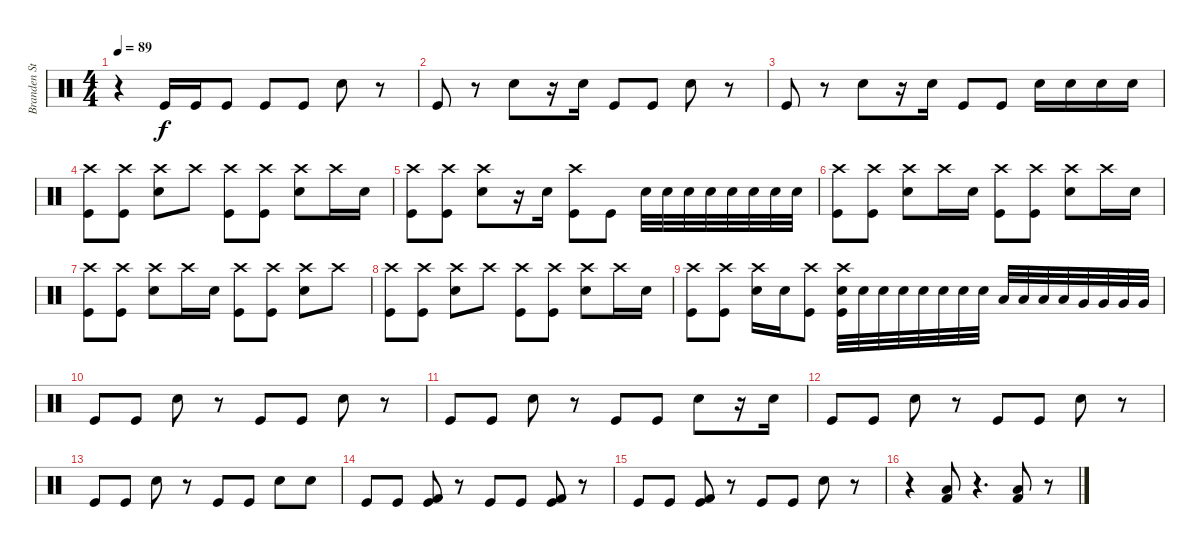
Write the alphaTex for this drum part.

\track ("Branden Steineckert - Drums" "Branden St") {instrument percussion}
\staff {score}
\articulation defaults
\ts (4 4)
\tempo 89
\clef neutral
\ks c
r.4{dy f} "Kick (hit)".16 "Kick (hit)".16 "Kick (hit)".8 "Kick (hit)".8 "Kick (hit)".8 "Electric Snare (hit)".8 r.8 |
"Kick (hit)".8 r.8 "Electric Snare (hit)".8 r.16 "Electric Snare (hit)".16 "Kick (hit)".8 "Kick (hit)".8 "Electric Snare (hit)".8 r.8 |
"Kick (hit)".8 r.8 "Electric Snare (hit)".8 r.16 "Electric Snare (hit)".16 "Kick (hit)".8 "Kick (hit)".8 "Electric Snare (hit)".16 "Electric Snare (hit)".16 "Electric Snare (hit)".16 "Electric Snare (hit)".16 |
("Crash high (hit)" "Kick (hit)").8 ("Crash high (hit)" "Kick (hit)").8 ("Crash high (hit)" "Electric Snare (hit)").8 "Crash high (hit)".8 ("Crash high (hit)" "Kick (hit)").8 ("Crash high (hit)" "Kick (hit)").8 ("Crash high (hit)" "Electric Snare (hit)").8 "Crash high (hit)".16 "Electric Snare (hit)".16 |
("Crash high (hit)" "Kick (hit)").8 ("Crash high (hit)" "Kick (hit)").8 ("Crash high (hit)" "Electric Snare (hit)").8 r.16 "Electric Snare (hit)".16 ("Crash high (hit)" "Kick (hit)").8 "Kick (hit)".8 "Electric Snare (hit)".32 "Electric Snare (hit)".32 "Electric Snare (hit)".32 "Electric Snare (hit)".32 "Electric Snare (hit)".32 "Electric Snare (hit)".32 "Electric Snare (hit)".32 "Electric Snare (hit)".32 |
("Crash high (hit)" "Kick (hit)").8 ("Crash high (hit)" "Kick (hit)").8 ("Crash high (hit)" "Electric Snare (hit)").8 "Crash high (hit)".16 "Electric Snare (hit)".16 ("Crash high (hit)" "Kick (hit)").8 ("Crash high (hit)" "Kick (hit)").8 ("Crash high (hit)" "Electric Snare (hit)").8 "Crash high (hit)".16 "Electric Snare (hit)".16 |
("Crash high (hit)" "Kick (hit)").8 ("Crash high (hit)" "Kick (hit)").8 ("Crash high (hit)" "Electric Snare (hit)").8 "Crash high (hit)".16 "Electric Snare (hit)".16 ("Crash high (hit)" "Kick (hit)").8 ("Crash high (hit)" "Kick (hit)").8 ("Crash high (hit)" "Electric Snare (hit)").8 "Crash high (hit)".8 |
("Crash high (hit)" "Kick (hit)").8 ("Crash high (hit)" "Kick (hit)").8 ("Crash high (hit)" "Electric Snare (hit)").8 "Crash high (hit)".8 ("Crash high (hit)" "Kick (hit)").8 ("Crash high (hit)" "Kick (hit)").8 ("Crash high (hit)" "Electric Snare (hit)").8 "Crash high (hit)".16 "Electric Snare (hit)".16 |
("Crash high (hit)" "Kick (hit)").8 ("Crash high (hit)" "Kick (hit)").8 ("Crash high (hit)" "Electric Snare (hit)").16 "Electric Snare (hit)".16 ("Crash high (hit)" "Kick (hit)").8 ("Crash high (hit)" "Electric Snare (hit)" "Kick (hit)").32 "Electric Snare (hit)".32 "Electric Snare (hit)".32 "Electric Snare (hit)".32 "Electric Snare (hit)".32 "Electric Snare (hit)".32 "Electric Snare (hit)".32 "Electric Snare (hit)".32 "Low Tom (hit)".32 "Low Tom (hit)".32 "Low Tom (hit)".32 "Low Tom (hit)".32 "Very Low Tom (hit)".32 "Very Low Tom (hit)".32 "Very Low Tom (hit)".32 "Very Low Tom (hit)".32 |
"Kick (hit)".8 "Kick (hit)".8 "Electric Snare (hit)".8 r.8 "Kick (hit)".8 "Kick (hit)".8 "Electric Snare (hit)".8 r.8 |
"Kick (hit)".8 "Kick (hit)".8 "Electric Snare (hit)".8 r.8 "Kick (hit)".8 "Kick (hit)".8 "Electric Snare (hit)".8 r.16 "Electric Snare (hit)".16 |
"Kick (hit)".8 "Kick (hit)".8 "Electric Snare (hit)".8 r.8 "Kick (hit)".8 "Kick (hit)".8 "Electric Snare (hit)".8 r.8 |
"Kick (hit)".8 "Kick (hit)".8 "Electric Snare (hit)".8 r.8 "Kick (hit)".8 "Kick (hit)".8 "Electric Snare (hit)".8 "Electric Snare (hit)".8 |
"Kick (hit)".8 "Kick (hit)".8 ("Kick (hit) 2" "Kick (hit)").8 r.8 "Kick (hit)".8 "Kick (hit)".8 ("Kick (hit) 2" "Kick (hit)").8 r.8 |
"Kick (hit)".8 "Kick (hit)".8 ("Kick (hit) 2" "Kick (hit)").8 r.8 "Kick (hit)".8 "Kick (hit)".8 "Electric Snare (hit)".8 r.8 |
r.4 ("Low Floor Tom (hit)" "Kick (hit) 2").8 r.4{d} ("Low Floor Tom (hit)" "Kick (hit) 2").8 r.8
